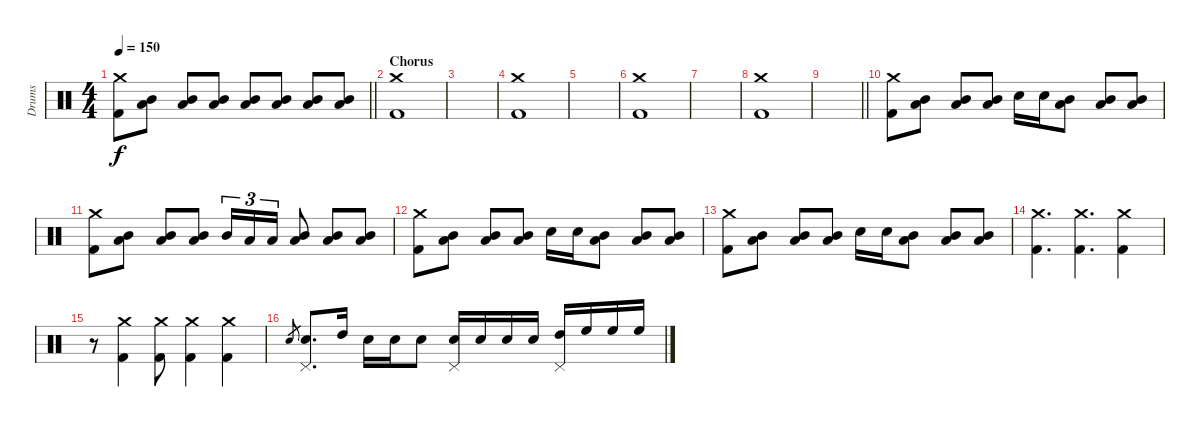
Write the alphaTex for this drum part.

\track ("Drums" "Drums") {instrument percussion}
\staff {score}
\articulation defaults
\ts (4 4)
\tempo 150
\clef neutral
\barLineRight lightlight
\ks c
("Crash medium (hit)" "Kick (hit) 2").8{dy f} ("Low Tom (hit)" "Mid Tom (hit)").8 ("Low Tom (hit)" "Mid Tom (hit)").8 ("Low Tom (hit)" "Mid Tom (hit)").8 ("Low Tom (hit)" "Mid Tom (hit)").8 ("Low Tom (hit)" "Mid Tom (hit)").8 ("Low Tom (hit)" "Mid Tom (hit)").8 ("Low Tom (hit)" "Mid Tom (hit)").8 |
\section ("" "Chorus")
("Crash medium (hit)" "Kick (hit) 2").1 |
|
("Crash medium (hit)" "Kick (hit) 2").1 |
|
("Crash medium (hit)" "Kick (hit) 2").1 |
|
("Crash medium (hit)" "Kick (hit) 2").1 |
\barLineRight lightlight
|
\section ("" "")
("Crash medium (hit)" "Kick (hit) 2").8 ("Mid Tom (hit)" "Low Tom (hit)").8 ("Mid Tom (hit)" "Low Tom (hit)").8 ("Mid Tom (hit)" "Low Tom (hit)").8 "Electric Snare (hit)".16 "Electric Snare (hit)".16 ("Low Tom (hit)" "Mid Tom (hit)").8 ("Low Tom (hit)" "Mid Tom (hit)").8 ("Low Tom (hit)" "Mid Tom (hit)").8 |
("Crash medium (hit)" "Kick (hit) 2").8 ("Mid Tom (hit)" "Low Tom (hit)").8 ("Mid Tom (hit)" "Low Tom (hit)").8 ("Mid Tom (hit)" "Low Tom (hit)").8 "Mid Tom (hit)".16{tu (3 2)} "Low Tom (hit)".16{tu (3 2)} "Low Tom (hit)".16{tu (3 2)} ("Low Tom (hit)" "Mid Tom (hit)").8 ("Low Tom (hit)" "Mid Tom (hit)").8 ("Low Tom (hit)" "Mid Tom (hit)").8 |
("Crash medium (hit)" "Kick (hit) 2").8 ("Mid Tom (hit)" "Low Tom (hit)").8 ("Mid Tom (hit)" "Low Tom (hit)").8 ("Mid Tom (hit)" "Low Tom (hit)").8 "Electric Snare (hit)".16 "Electric Snare (hit)".16 ("Low Tom (hit)" "Mid Tom (hit)").8 ("Low Tom (hit)" "Mid Tom (hit)").8 ("Low Tom (hit)" "Mid Tom (hit)").8 |
("Crash medium (hit)" "Kick (hit) 2").8 ("Mid Tom (hit)" "Low Tom (hit)").8 ("Mid Tom (hit)" "Low Tom (hit)").8 ("Mid Tom (hit)" "Low Tom (hit)").8 "Electric Snare (hit)".16 "Electric Snare (hit)".16 ("Low Tom (hit)" "Mid Tom (hit)").8 ("Low Tom (hit)" "Mid Tom (hit)").8 ("Low Tom (hit)" "Mid Tom (hit)").8 |
("Crash medium (hit)" "Kick (hit) 2").4{d} ("Crash medium (hit)" "Kick (hit) 2").4{d} ("Crash medium (hit)" "Kick (hit) 2").4 |
r.8 ("Crash medium (hit)" "Kick (hit) 2").4 ("Crash medium (hit)" "Kick (hit) 2").8 ("Crash medium (hit)" "Kick (hit) 2").4 ("Crash medium (hit)" "Kick (hit) 2").4 |
"Electric Snare (hit)".8{gr} ("Electric Snare (hit)" "Pedal Hi-Hat (hit)").8{d} "High Tom (hit)".16 "Electric Snare (hit)".16 "Electric Snare (hit)".16 "Electric Snare (hit)".8 ("Electric Snare (hit)" "Pedal Hi-Hat (hit)").16 "Electric Snare (hit)".16 "Electric Snare (hit)".16 "Electric Snare (hit)".16 ("High Tom (hit)" "Pedal Hi-Hat (hit)").16 "High Floor Tom (hit)".16 "High Floor Tom (hit)".16 "High Floor Tom (hit)".16
